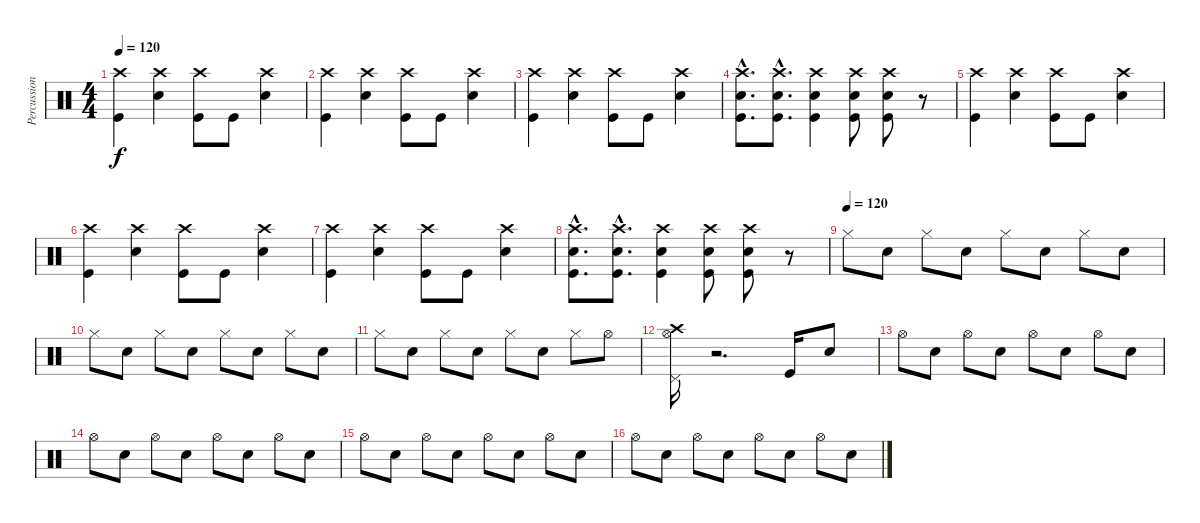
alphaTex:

\track ("Percussions" "Percussion") {instrument percussion}
\staff {score}
\articulation defaults
\ts (4 4)
\tempo 120
\clef neutral
\ks c
("Crash high (hit)" "Kick (hit)").4{dy f} ("Crash high (hit)" "Snare (hit) 2").4 ("Crash high (hit)" "Kick (hit)").8 "Kick (hit)".8 ("Crash high (hit)" "Snare (hit) 2").4 |
("Crash high (hit)" "Kick (hit)").4 ("Crash high (hit)" "Snare (hit) 2").4 ("Crash high (hit)" "Kick (hit)").8 "Kick (hit)".8 ("Crash high (hit)" "Snare (hit) 2").4 |
("Crash high (hit)" "Kick (hit)").4 ("Crash high (hit)" "Snare (hit) 2").4 ("Crash high (hit)" "Kick (hit)").8 "Kick (hit)".8 ("Crash high (hit)" "Snare (hit) 2").4 |
("Crash high (hit)"{hac} "Kick (hit)"{hac} "Snare (hit) 2"{hac}).8{d} ("Crash high (hit)"{hac} "Kick (hit)"{hac} "Snare (hit) 2"{hac}).8{d} ("Crash high (hit)" "Kick (hit)" "Snare (hit) 2").4 ("Crash high (hit)" "Kick (hit)" "Snare (hit) 2").8 ("Crash high (hit)" "Kick (hit)" "Snare (hit) 2").8 r.8 |
("Crash high (hit)" "Kick (hit)").4 ("Crash high (hit)" "Snare (hit) 2").4 ("Crash high (hit)" "Kick (hit)").8 "Kick (hit)".8 ("Crash high (hit)" "Snare (hit) 2").4 |
("Crash high (hit)" "Kick (hit)").4 ("Crash high (hit)" "Snare (hit) 2").4 ("Crash high (hit)" "Kick (hit)").8 "Kick (hit)".8 ("Crash high (hit)" "Snare (hit) 2").4 |
("Crash high (hit)" "Kick (hit)").4 ("Crash high (hit)" "Snare (hit) 2").4 ("Crash high (hit)" "Kick (hit)").8 "Kick (hit)".8 ("Crash high (hit)" "Snare (hit) 2").4 |
("Crash high (hit)"{hac} "Kick (hit)"{hac} "Snare (hit) 2"{hac}).8{d} ("Crash high (hit)"{hac} "Kick (hit)"{hac} "Snare (hit) 2"{hac}).8{d} ("Crash high (hit)" "Kick (hit)" "Snare (hit) 2").4 ("Crash high (hit)" "Kick (hit)" "Snare (hit) 2").8 ("Crash high (hit)" "Kick (hit)" "Snare (hit) 2").8 r.8 |
\tempo (120)
"Hi-Hat (closed)".8 "Snare (hit) 2".8 "Hi-Hat (closed)".8 "Snare (hit) 2".8 "Hi-Hat (closed)".8 "Snare (hit) 2".8 "Hi-Hat (closed)".8 "Snare (hit) 2".8 |
"Hi-Hat (closed)".8 "Snare (hit) 2".8 "Hi-Hat (closed)".8 "Snare (hit) 2".8 "Hi-Hat (closed)".8 "Snare (hit) 2".8 "Hi-Hat (closed)".8 "Snare (hit) 2".8 |
"Hi-Hat (closed)".8 "Snare (hit) 2".8 "Hi-Hat (closed)".8 "Snare (hit) 2".8 "Hi-Hat (closed)".8 "Snare (hit) 2".8 "Hi-Hat (closed)".8 "Hi-Hat (open)".8 |
("Crash high (hit)" "Hi-Hat (open)" "Pedal Hi-Hat (hit)").16 r.2{d} "Kick (hit)".16 "Snare (hit) 2".8 |
"Hi-Hat (open)".8 "Snare (hit) 2".8 "Hi-Hat (open)".8 "Snare (hit) 2".8 "Hi-Hat (open)".8 "Snare (hit) 2".8 "Hi-Hat (open)".8 "Snare (hit) 2".8 |
"Hi-Hat (open)".8 "Snare (hit) 2".8 "Hi-Hat (open)".8 "Snare (hit) 2".8 "Hi-Hat (open)".8 "Snare (hit) 2".8 "Hi-Hat (open)".8 "Snare (hit) 2".8 |
"Hi-Hat (open)".8 "Snare (hit) 2".8 "Hi-Hat (open)".8 "Snare (hit) 2".8 "Hi-Hat (open)".8 "Snare (hit) 2".8 "Hi-Hat (open)".8 "Snare (hit) 2".8 |
"Hi-Hat (open)".8 "Snare (hit) 2".8 "Hi-Hat (open)".8 "Snare (hit) 2".8 "Hi-Hat (open)".8 "Snare (hit) 2".8 "Hi-Hat (open)".8 "Snare (hit) 2".8
